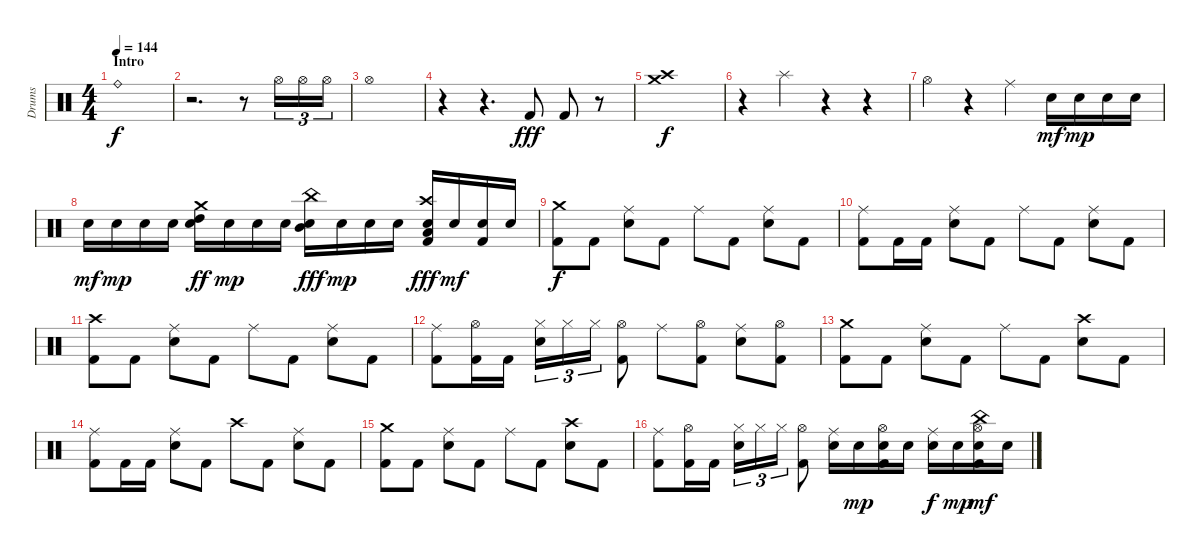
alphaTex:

\track ("Drums" "Drums") {instrument percussion}
\staff {score}
\articulation defaults
\ts (4 4)
\section ("" "Intro")
\tempo 144
\clef neutral
\ks c "Ride (bell)".1{dy f}
|
r.2{d} r.8 "Hi-Hat (open)".16{tu (3 2)} "Hi-Hat (open)".16{tu (3 2)} "Hi-Hat (open)".16{tu (3 2)} |
"Hi-Hat (open)".1 |
r.4 r.4{d} "Kick (hit) 2".8{dy fff} "Kick (hit) 2".8 r.8 |
("Crash medium (hit)" "Crash high (hit)").1{dy f} |
r.4 "Splash (hit)".4 r.4 r.4 |
"Hi-Hat (open)".4 r.4 "Ride (middle)".4 "Snare (hit) 2".16{dy mf} "Snare (hit) 2".16{dy mp} "Snare (hit) 2".16 "Snare (hit) 2".16 |
"Snare (hit) 2".16{dy mf} "Snare (hit) 2".16{dy mp} "Snare (hit) 2".16 "Snare (hit) 2".16 ("Crash medium (hit)" "High Tom (hit)" "Snare (hit) 2").16{dy ff} "Snare (hit) 2".16{dy mp} "Snare (hit) 2".16 "Snare (hit) 2".16 ("China (hit)" "Mid Tom (hit)" "Snare (hit) 2").16{dy fff} "Snare (hit) 2".16{dy mp} "Snare (hit) 2".16 "Snare (hit) 2".16 ("Crash high (hit)" "Low Tom (hit)" "Snare (hit) 2" "Kick (hit) 2").16{dy fff} "Snare (hit) 2".16{dy mf} ("Snare (hit) 2" "Kick (hit) 2").16 "Snare (hit) 2".16 |
("Crash medium (hit)" "Kick (hit) 2").8{dy f} "Kick (hit) 2".8 ("Ride (middle)" "Snare (hit) 2").8 "Kick (hit) 2".8 "Ride (middle)".8 "Kick (hit) 2".8 ("Ride (middle)" "Snare (hit) 2").8 "Kick (hit) 2".8 |
("Ride (middle)" "Kick (hit) 2").8 "Kick (hit) 2".16 "Kick (hit) 2".16 ("Ride (middle)" "Snare (hit) 2").8 "Kick (hit) 2".8 "Ride (middle)".8 "Kick (hit) 2".8 ("Ride (middle)" "Snare (hit) 2").8 "Kick (hit) 2".8 |
("Crash high (hit)" "Kick (hit) 2").8 "Kick (hit) 2".8 ("Ride (middle)" "Snare (hit) 2").8 "Kick (hit) 2".8 "Ride (middle)".8 "Kick (hit) 2".8 ("Ride (middle)" "Snare (hit) 2").8 "Kick (hit) 2".8 |
("Ride (middle)" "Kick (hit) 2").8 ("Hi-Hat (open)" "Kick (hit) 2").16 "Kick (hit) 2".16 ("Hi-Hat (closed)" "Snare (hit) 2").16{tu (3 2)} "Hi-Hat (closed)".16{tu (3 2)} "Hi-Hat (closed)".16{tu (3 2)} ("Hi-Hat (open)" "Kick (hit) 2").8 "Ride (middle)".8 ("Hi-Hat (open)" "Kick (hit) 2").8 ("Ride (middle)" "Snare (hit) 2").8 ("Hi-Hat (open)" "Kick (hit) 2").8 |
("Crash medium (hit)" "Kick (hit) 2").8 "Kick (hit) 2".8 ("Ride (middle)" "Snare (hit) 2").8 "Kick (hit) 2".8 "Ride (middle)".8 "Kick (hit) 2".8 ("Crash high (hit)" "Snare (hit) 2").8 "Kick (hit) 2".8 |
("Ride (middle)" "Kick (hit) 2").8 "Kick (hit) 2".16 "Kick (hit) 2".16 ("Ride (middle)" "Snare (hit) 2").8 "Kick (hit) 2".8 "Crash high (hit)".8 "Kick (hit) 2".8 ("Ride (middle)" "Snare (hit) 2").8 "Kick (hit) 2".8 |
("Crash medium (hit)" "Kick (hit) 2").8 "Kick (hit) 2".8 ("Ride (middle)" "Snare (hit) 2").8 "Kick (hit) 2".8 "Ride (middle)".8 "Kick (hit) 2".8 ("Crash high (hit)" "Snare (hit) 2").8 "Kick (hit) 2".8 |
("Ride (middle)" "Kick (hit) 2").8 ("Hi-Hat (open)" "Kick (hit) 2").16 "Kick (hit) 2".16 ("Hi-Hat (closed)" "Snare (hit) 2").16{tu (3 2)} "Hi-Hat (closed)".16{tu (3 2)} "Hi-Hat (closed)".16{tu (3 2)} ("Hi-Hat (open)" "Kick (hit) 2").8 ("Ride (middle)" "Snare (hit) 2").16 "Snare (hit) 2".16{dy mp} ("Hi-Hat (open)" "Snare (hit) 2" "Kick (hit) 2").16 "Snare (hit) 2".16 ("Ride (middle)" "Snare (hit) 2").16{dy f} "Snare (hit) 2".16{dy mp} ("Hi-Hat (open)" "China (hit)" "Snare (hit) 2" "Kick (hit) 2").16{dy mf} "Snare (hit) 2".16
